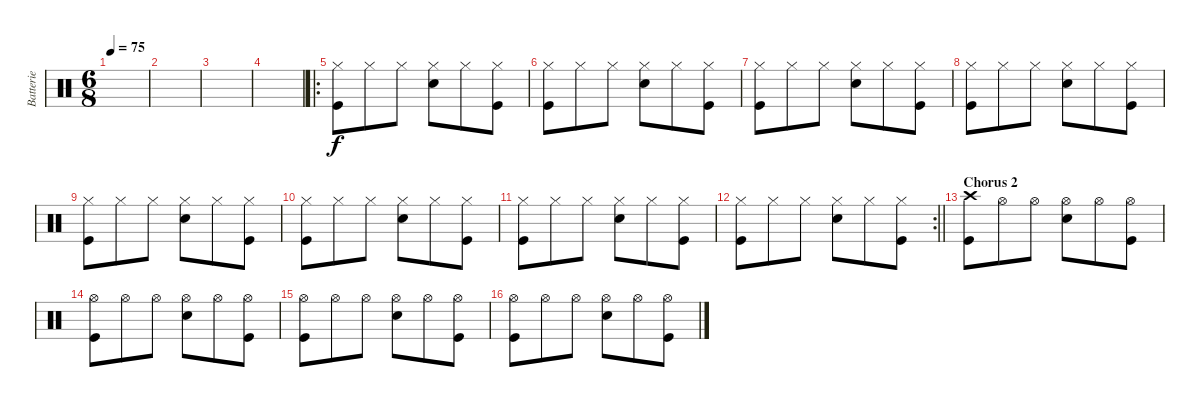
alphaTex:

\track ("Batterie" "Batterie") {instrument percussion}
\staff {score}
\articulation defaults
\ts (6 8)
\tempo 75
\clef neutral
\ks c
|
|
|
|
\ro
("Hi-Hat (closed)" "Kick (hit)").8 "Hi-Hat (closed)".8 "Hi-Hat (closed)".8 ("Snare (hit) 2" "Hi-Hat (closed)").8 "Hi-Hat (closed)".8 ("Kick (hit)" "Hi-Hat (closed)").8 |
("Hi-Hat (closed)" "Kick (hit)").8 "Hi-Hat (closed)".8 "Hi-Hat (closed)".8 ("Snare (hit) 2" "Hi-Hat (closed)").8 "Hi-Hat (closed)".8 ("Kick (hit)" "Hi-Hat (closed)").8 |
("Hi-Hat (closed)" "Kick (hit)").8 "Hi-Hat (closed)".8 "Hi-Hat (closed)".8 ("Snare (hit) 2" "Hi-Hat (closed)").8 "Hi-Hat (closed)".8 ("Kick (hit)" "Hi-Hat (closed)").8 |
("Hi-Hat (closed)" "Kick (hit)").8 "Hi-Hat (closed)".8 "Hi-Hat (closed)".8 ("Snare (hit) 2" "Hi-Hat (closed)").8 "Hi-Hat (closed)".8 ("Kick (hit)" "Hi-Hat (closed)").8 |
("Hi-Hat (closed)" "Kick (hit)").8 "Hi-Hat (closed)".8 "Hi-Hat (closed)".8 ("Snare (hit) 2" "Hi-Hat (closed)").8 "Hi-Hat (closed)".8 ("Kick (hit)" "Hi-Hat (closed)").8 |
("Hi-Hat (closed)" "Kick (hit)").8 "Hi-Hat (closed)".8 "Hi-Hat (closed)".8 ("Snare (hit) 2" "Hi-Hat (closed)").8 "Hi-Hat (closed)".8 ("Kick (hit)" "Hi-Hat (closed)").8 |
("Hi-Hat (closed)" "Kick (hit)").8 "Hi-Hat (closed)".8 "Hi-Hat (closed)".8 ("Snare (hit) 2" "Hi-Hat (closed)").8 "Hi-Hat (closed)".8 ("Kick (hit)" "Hi-Hat (closed)").8 |
\rc 2
\barLineRight lightlight
("Hi-Hat (closed)" "Kick (hit)").8 "Hi-Hat (closed)".8 "Hi-Hat (closed)".8 ("Snare (hit) 2" "Hi-Hat (closed)").8 "Hi-Hat (closed)".8 ("Kick (hit)" "Hi-Hat (closed)").8 |
\section ("" "Chorus 2")
("Kick (hit)" "Crash high (hit)").8 "Hi-Hat (open)".8 "Hi-Hat (open)".8 ("Electric Snare (hit)" "Hi-Hat (open)").8 "Hi-Hat (open)".8 ("Kick (hit)" "Hi-Hat (open)").8 |
("Hi-Hat (open)" "Kick (hit)").8 "Hi-Hat (open)".8 "Hi-Hat (open)".8 ("Electric Snare (hit)" "Hi-Hat (open)").8 "Hi-Hat (open)".8 ("Kick (hit)" "Hi-Hat (open)").8 |
("Hi-Hat (open)" "Kick (hit)").8 "Hi-Hat (open)".8 "Hi-Hat (open)".8 ("Electric Snare (hit)" "Hi-Hat (open)").8 "Hi-Hat (open)".8 ("Kick (hit)" "Hi-Hat (open)").8 |
("Hi-Hat (open)" "Kick (hit)").8 "Hi-Hat (open)".8 "Hi-Hat (open)".8 ("Electric Snare (hit)" "Hi-Hat (open)").8 "Hi-Hat (open)".8 ("Kick (hit)" "Hi-Hat (open)").8
